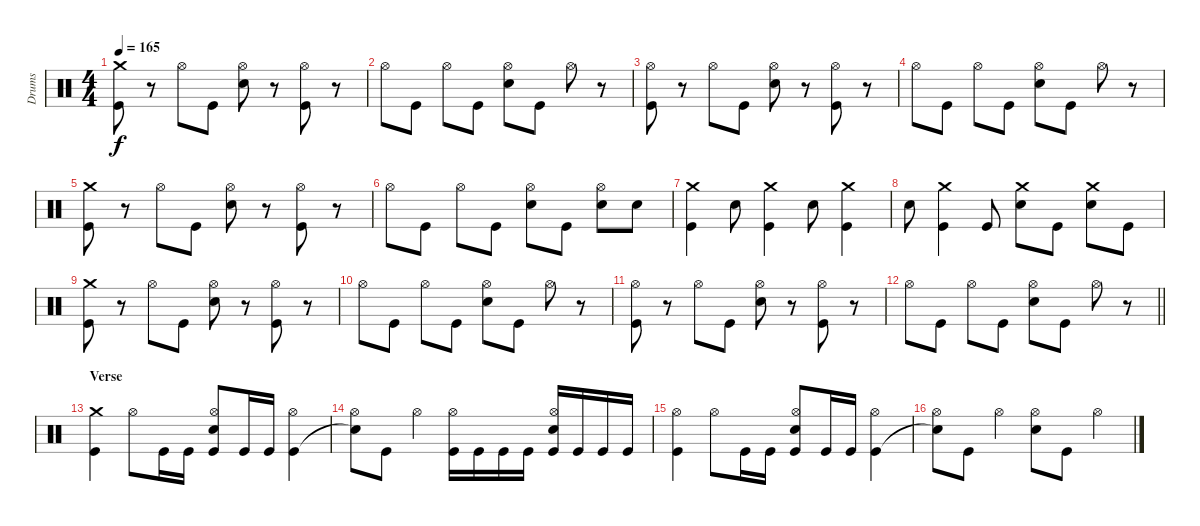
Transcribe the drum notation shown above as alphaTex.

\track ("Drums" "Drums") {instrument percussion}
\staff {score}
\articulation defaults
\ts (4 4)
\tempo 165
\clef neutral
\ks c
("Crash medium (hit)" "Kick (hit)").8{dy f} r.8 "Hi-Hat (open)".8 "Kick (hit)".8 ("Hi-Hat (open)" "Electric Snare (hit)").8 r.8 ("Hi-Hat (open)" "Kick (hit)").8 r.8 |
"Hi-Hat (open)".8 "Kick (hit)".8 "Hi-Hat (open)".8 "Kick (hit)".8 ("Hi-Hat (open)" "Electric Snare (hit)").8 "Kick (hit)".8 "Hi-Hat (open)".8 r.8 |
("Hi-Hat (open)" "Kick (hit)").8 r.8 "Hi-Hat (open)".8 "Kick (hit)".8 ("Hi-Hat (open)" "Electric Snare (hit)").8 r.8 ("Hi-Hat (open)" "Kick (hit)").8 r.8 |
"Hi-Hat (open)".8 "Kick (hit)".8 "Hi-Hat (open)".8 "Kick (hit)".8 ("Hi-Hat (open)" "Electric Snare (hit)").8 "Kick (hit)".8 "Hi-Hat (open)".8 r.8 |
("Crash medium (hit)" "Kick (hit)").8 r.8 "Hi-Hat (open)".8 "Kick (hit)".8 ("Hi-Hat (open)" "Electric Snare (hit)").8 r.8 ("Hi-Hat (open)" "Kick (hit)").8 r.8 |
"Hi-Hat (open)".8 "Kick (hit)".8 "Hi-Hat (open)".8 "Kick (hit)".8 ("Hi-Hat (open)" "Electric Snare (hit)").8 "Kick (hit)".8 ("Hi-Hat (open)" "Electric Snare (hit)").8 "Electric Snare (hit)".8 |
("Crash medium (hit)" "Kick (hit)").4 "Electric Snare (hit)".8 ("Crash medium (hit)" "Kick (hit)").4 "Electric Snare (hit)".8 ("Crash medium (hit)" "Kick (hit)").4 |
"Electric Snare (hit)".8 ("Crash medium (hit)" "Kick (hit)").4 "Kick (hit)".8 ("Crash medium (hit)" "Electric Snare (hit)").8 "Kick (hit)".8 ("Crash medium (hit)" "Electric Snare (hit)").8 "Kick (hit)".8 |
("Crash medium (hit)" "Kick (hit)").8 r.8 "Hi-Hat (open)".8 "Kick (hit)".8 ("Hi-Hat (open)" "Electric Snare (hit)").8 r.8 ("Hi-Hat (open)" "Kick (hit)").8 r.8 |
"Hi-Hat (open)".8 "Kick (hit)".8 "Hi-Hat (open)".8 "Kick (hit)".8 ("Hi-Hat (open)" "Electric Snare (hit)").8 "Kick (hit)".8 "Hi-Hat (open)".8 r.8 |
("Hi-Hat (open)" "Kick (hit)").8 r.8 "Hi-Hat (open)".8 "Kick (hit)".8 ("Hi-Hat (open)" "Electric Snare (hit)").8 r.8 ("Hi-Hat (open)" "Kick (hit)").8 r.8 |
\barLineRight lightlight "Hi-Hat (open)".8 "Kick (hit)".8 "Hi-Hat (open)".8 "Kick (hit)".8
("Hi-Hat (open)" "Electric Snare (hit)").8 "Kick (hit)".8 "Hi-Hat (open)".8 r.8 |
\section ("" "Verse")
("Crash medium (hit)" "Kick (hit)").4 "Hi-Hat (open)".8 "Kick (hit)".16 "Kick (hit)".16 ("Hi-Hat (open)" "Electric Snare (hit)" "Kick (hit)").8 "Kick (hit)".16 "Kick (hit)".16 ("Hi-Hat (open)" "Kick (hit)").4 |
("Hi-Hat (open)" "Snare (hit)"{t}).8 "Kick (hit)".8 "Hi-Hat (open)".4 ("Hi-Hat (open)" "Kick (hit)").16 "Kick (hit)".16 "Kick (hit)".16 "Kick (hit)".16 ("Hi-Hat (open)" "Electric Snare (hit)" "Kick (hit)").16 "Kick (hit)".16 "Kick (hit)".16 "Kick (hit)".16 |
("Hi-Hat (open)" "Kick (hit)").4 "Hi-Hat (open)".8 "Kick (hit)".16 "Kick (hit)".16 ("Hi-Hat (open)" "Electric Snare (hit)" "Kick (hit)").8 "Kick (hit)".16 "Kick (hit)".16 ("Hi-Hat (open)" "Kick (hit)").4 |
("Hi-Hat (open)" "Snare (hit)"{t}).8 "Kick (hit)".8 "Hi-Hat (open)".4 ("Hi-Hat (open)" "Electric Snare (hit)").8 "Kick (hit)".8 "Hi-Hat (open)".4
